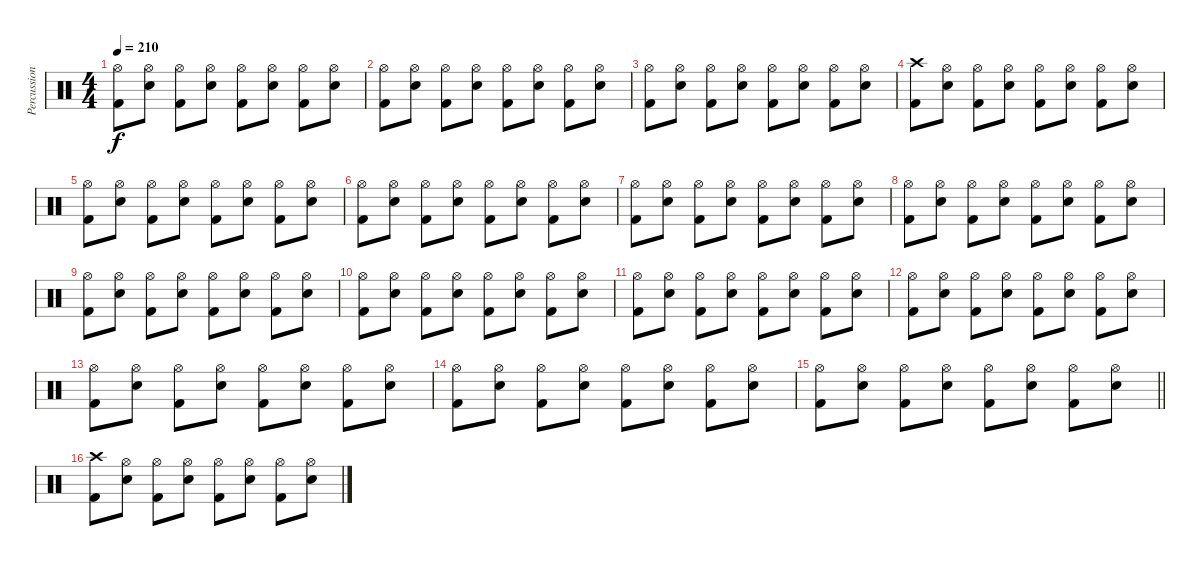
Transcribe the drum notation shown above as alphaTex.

\track ("Percussion" "Percussion") {instrument percussion}
\staff {score}
\articulation defaults
\ts (4 4)
\tempo 210
\clef neutral
\ks c
("Hi-Hat (open)" "Kick (hit) 2").8{dy f} ("Hi-Hat (open)" "Electric Snare (hit)").8 ("Hi-Hat (open)" "Kick (hit) 2").8 ("Hi-Hat (open)" "Electric Snare (hit)").8 ("Hi-Hat (open)" "Kick (hit) 2").8 ("Hi-Hat (open)" "Electric Snare (hit)").8 ("Hi-Hat (open)" "Kick (hit) 2").8 ("Hi-Hat (open)" "Electric Snare (hit)").8 |
("Hi-Hat (open)" "Kick (hit) 2").8 ("Hi-Hat (open)" "Electric Snare (hit)").8 ("Hi-Hat (open)" "Kick (hit) 2").8 ("Hi-Hat (open)" "Electric Snare (hit)").8 ("Hi-Hat (open)" "Kick (hit) 2").8 ("Hi-Hat (open)" "Electric Snare (hit)").8 ("Hi-Hat (open)" "Kick (hit) 2").8 ("Hi-Hat (open)" "Electric Snare (hit)").8 |
("Hi-Hat (open)" "Kick (hit) 2").8 ("Hi-Hat (open)" "Electric Snare (hit)").8 ("Hi-Hat (open)" "Kick (hit) 2").8 ("Hi-Hat (open)" "Electric Snare (hit)").8 ("Hi-Hat (open)" "Kick (hit) 2").8 ("Hi-Hat (open)" "Electric Snare (hit)").8 ("Hi-Hat (open)" "Kick (hit) 2").8 ("Hi-Hat (open)" "Electric Snare (hit)").8 |
("Crash high (hit)" "Kick (hit) 2").8 ("Hi-Hat (open)" "Electric Snare (hit)").8 ("Hi-Hat (open)" "Kick (hit) 2").8 ("Hi-Hat (open)" "Electric Snare (hit)").8 ("Hi-Hat (open)" "Kick (hit) 2").8 ("Hi-Hat (open)" "Electric Snare (hit)").8 ("Hi-Hat (open)" "Kick (hit) 2").8 ("Hi-Hat (open)" "Electric Snare (hit)").8 |
("Hi-Hat (open)" "Kick (hit) 2").8 ("Hi-Hat (open)" "Electric Snare (hit)").8 ("Hi-Hat (open)" "Kick (hit) 2").8 ("Hi-Hat (open)" "Electric Snare (hit)").8 ("Hi-Hat (open)" "Kick (hit) 2").8 ("Hi-Hat (open)" "Electric Snare (hit)").8 ("Hi-Hat (open)" "Kick (hit) 2").8 ("Hi-Hat (open)" "Electric Snare (hit)").8 |
("Hi-Hat (open)" "Kick (hit) 2").8 ("Hi-Hat (open)" "Electric Snare (hit)").8 ("Hi-Hat (open)" "Kick (hit) 2").8 ("Hi-Hat (open)" "Electric Snare (hit)").8 ("Hi-Hat (open)" "Kick (hit) 2").8 ("Hi-Hat (open)" "Electric Snare (hit)").8 ("Hi-Hat (open)" "Kick (hit) 2").8 ("Hi-Hat (open)" "Electric Snare (hit)").8 |
("Hi-Hat (open)" "Kick (hit) 2").8 ("Hi-Hat (open)" "Electric Snare (hit)").8 ("Hi-Hat (open)" "Kick (hit) 2").8 ("Hi-Hat (open)" "Electric Snare (hit)").8 ("Hi-Hat (open)" "Kick (hit) 2").8 ("Hi-Hat (open)" "Electric Snare (hit)").8 ("Hi-Hat (open)" "Kick (hit) 2").8 ("Hi-Hat (open)" "Electric Snare (hit)").8 |
("Hi-Hat (open)" "Kick (hit) 2").8 ("Hi-Hat (open)" "Electric Snare (hit)").8 ("Hi-Hat (open)" "Kick (hit) 2").8 ("Hi-Hat (open)" "Electric Snare (hit)").8 ("Hi-Hat (open)" "Kick (hit) 2").8 ("Hi-Hat (open)" "Electric Snare (hit)").8 ("Hi-Hat (open)" "Kick (hit) 2").8 ("Hi-Hat (open)" "Electric Snare (hit)").8 |
("Hi-Hat (open)" "Kick (hit) 2").8 ("Hi-Hat (open)" "Electric Snare (hit)").8 ("Hi-Hat (open)" "Kick (hit) 2").8 ("Hi-Hat (open)" "Electric Snare (hit)").8 ("Hi-Hat (open)" "Kick (hit) 2").8 ("Hi-Hat (open)" "Electric Snare (hit)").8 ("Hi-Hat (open)" "Kick (hit) 2").8 ("Hi-Hat (open)" "Electric Snare (hit)").8 |
("Hi-Hat (open)" "Kick (hit) 2").8 ("Hi-Hat (open)" "Electric Snare (hit)").8 ("Hi-Hat (open)" "Kick (hit) 2").8 ("Hi-Hat (open)" "Electric Snare (hit)").8 ("Hi-Hat (open)" "Kick (hit) 2").8 ("Hi-Hat (open)" "Electric Snare (hit)").8 ("Hi-Hat (open)" "Kick (hit) 2").8 ("Hi-Hat (open)" "Electric Snare (hit)").8 |
("Hi-Hat (open)" "Kick (hit) 2").8 ("Hi-Hat (open)" "Electric Snare (hit)").8 ("Hi-Hat (open)" "Kick (hit) 2").8 ("Hi-Hat (open)" "Electric Snare (hit)").8 ("Hi-Hat (open)" "Kick (hit) 2").8 ("Hi-Hat (open)" "Electric Snare (hit)").8 ("Hi-Hat (open)" "Kick (hit) 2").8 ("Hi-Hat (open)" "Electric Snare (hit)").8 |
("Hi-Hat (open)" "Kick (hit) 2").8 ("Hi-Hat (open)" "Electric Snare (hit)").8 ("Hi-Hat (open)" "Kick (hit) 2").8 ("Hi-Hat (open)" "Electric Snare (hit)").8 ("Hi-Hat (open)" "Kick (hit) 2").8 ("Hi-Hat (open)" "Electric Snare (hit)").8 ("Hi-Hat (open)" "Kick (hit) 2").8 ("Hi-Hat (open)" "Electric Snare (hit)").8 |
("Hi-Hat (open)" "Kick (hit) 2").8 ("Hi-Hat (open)" "Electric Snare (hit)").8 ("Hi-Hat (open)" "Kick (hit) 2").8 ("Hi-Hat (open)" "Electric Snare (hit)").8 ("Hi-Hat (open)" "Kick (hit) 2").8 ("Hi-Hat (open)" "Electric Snare (hit)").8 ("Hi-Hat (open)" "Kick (hit) 2").8 ("Hi-Hat (open)" "Electric Snare (hit)").8 |
("Hi-Hat (open)" "Kick (hit) 2").8 ("Hi-Hat (open)" "Electric Snare (hit)").8 ("Hi-Hat (open)" "Kick (hit) 2").8 ("Hi-Hat (open)" "Electric Snare (hit)").8 ("Hi-Hat (open)" "Kick (hit) 2").8 ("Hi-Hat (open)" "Electric Snare (hit)").8 ("Hi-Hat (open)" "Kick (hit) 2").8 ("Hi-Hat (open)" "Electric Snare (hit)").8 |
\barLineRight lightlight
("Hi-Hat (open)" "Kick (hit) 2").8 ("Hi-Hat (open)" "Electric Snare (hit)").8 ("Hi-Hat (open)" "Kick (hit) 2").8 ("Hi-Hat (open)" "Electric Snare (hit)").8 ("Hi-Hat (open)" "Kick (hit) 2").8 ("Hi-Hat (open)" "Electric Snare (hit)").8 ("Hi-Hat (open)" "Kick (hit) 2").8 ("Hi-Hat (open)" "Electric Snare (hit)").8 |
("Crash high (hit)" "Kick (hit) 2").8 ("Hi-Hat (open)" "Electric Snare (hit)").8 ("Hi-Hat (open)" "Kick (hit) 2").8 ("Hi-Hat (open)" "Electric Snare (hit)").8 ("Hi-Hat (open)" "Kick (hit) 2").8 ("Hi-Hat (open)" "Electric Snare (hit)").8 ("Hi-Hat (open)" "Kick (hit) 2").8 ("Hi-Hat (open)" "Electric Snare (hit)").8
